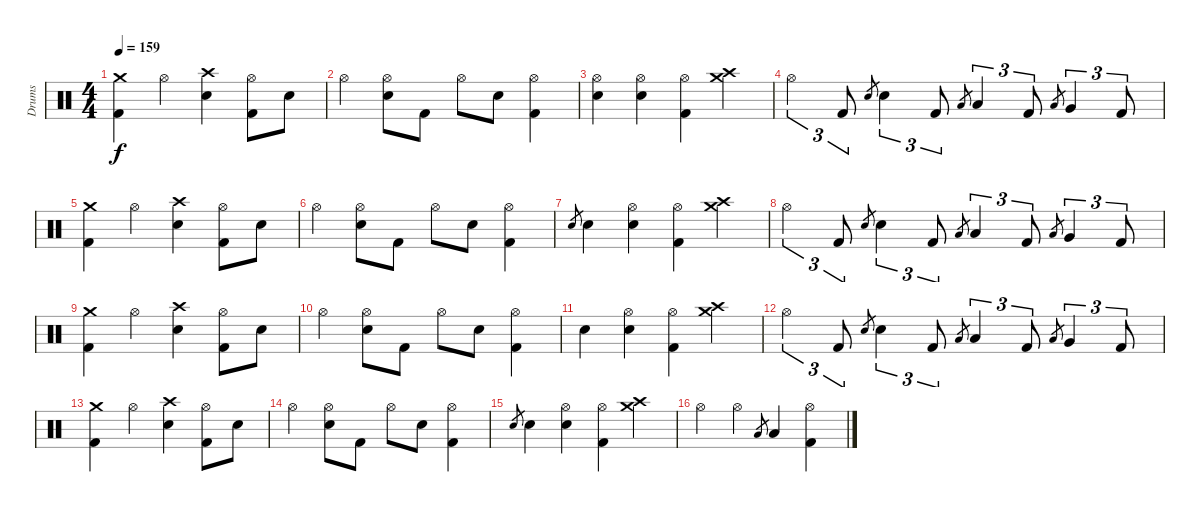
\track ("Drums" "Drums") {instrument percussion}
\staff {score}
\articulation defaults
\ts (4 4)
\tempo 159
\clef neutral
\ks c
("Crash medium (hit)" "Kick (hit) 2").4{dy f} "Hi-Hat (open)".4 ("Crash high (hit)" "Snare (hit) 2").4 ("Hi-Hat (open)" "Kick (hit) 2").8 "Snare (hit) 2".8 |
"Hi-Hat (open)".4 ("Hi-Hat (open)" "Snare (hit) 2").8 "Kick (hit) 2".8 "Hi-Hat (open)".8 "Snare (hit) 2".8 ("Hi-Hat (open)" "Kick (hit) 2").4 |
("Hi-Hat (open)" "Snare (hit) 2").4 ("Hi-Hat (open)" "Snare (hit) 2").4 ("Hi-Hat (open)" "Kick (hit) 2").4 ("Crash high (hit)" "Crash medium (hit)").4 |
"Hi-Hat (open)".4{tu (3 2)} "Kick (hit) 2".8{tu (3 2)} "Snare (hit) 2".8{gr} "Snare (hit) 2".4{tu (3 2)} "Kick (hit) 2".8{tu (3 2)} "Low Tom (hit)".8{gr} "Low Tom (hit)".4{tu (3 2)} "Kick (hit) 2".8{tu (3 2)} "Low Tom (hit)".8{gr} "Very Low Tom (hit)".4{tu (3 2)} "Kick (hit) 2".8{tu (3 2)} |
("Crash medium (hit)" "Kick (hit) 2").4 "Hi-Hat (open)".4 ("Crash high (hit)" "Snare (hit) 2").4 ("Hi-Hat (open)" "Kick (hit) 2").8 "Snare (hit) 2".8 |
"Hi-Hat (open)".4 ("Hi-Hat (open)" "Snare (hit) 2").8 "Kick (hit) 2".8 "Hi-Hat (open)".8 "Snare (hit) 2".8 ("Hi-Hat (open)" "Kick (hit) 2").4 |
"Snare (hit) 2".8{gr} "Snare (hit) 2".4 ("Hi-Hat (open)" "Snare (hit) 2").4 ("Hi-Hat (open)" "Kick (hit) 2").4 ("Crash high (hit)" "Crash medium (hit)").4 |
"Hi-Hat (open)".4{tu (3 2)} "Kick (hit) 2".8{tu (3 2)} "Snare (hit) 2".8{gr} "Snare (hit) 2".4{tu (3 2)} "Kick (hit) 2".8{tu (3 2)} "Low Tom (hit)".8{gr} "Low Tom (hit)".4{tu (3 2)} "Kick (hit) 2".8{tu (3 2)} "Low Tom (hit)".8{gr} "Very Low Tom (hit)".4{tu (3 2)} "Kick (hit) 2".8{tu (3 2)} |
("Crash medium (hit)" "Kick (hit) 2").4 "Hi-Hat (open)".4 ("Crash high (hit)" "Snare (hit) 2").4 ("Hi-Hat (open)" "Kick (hit) 2").8 "Snare (hit) 2".8 |
"Hi-Hat (open)".4 ("Hi-Hat (open)" "Snare (hit) 2").8 "Kick (hit) 2".8 "Hi-Hat (open)".8 "Snare (hit) 2".8 ("Hi-Hat (open)" "Kick (hit) 2").4 |
"Snare (hit) 2".4 ("Hi-Hat (open)" "Snare (hit) 2").4 ("Hi-Hat (open)" "Kick (hit) 2").4 ("Crash high (hit)" "Crash medium (hit)").4 |
"Hi-Hat (open)".4{tu (3 2)} "Kick (hit) 2".8{tu (3 2)} "Snare (hit) 2".8{gr} "Snare (hit) 2".4{tu (3 2)} "Kick (hit) 2".8{tu (3 2)} "Low Tom (hit)".8{gr} "Low Tom (hit)".4{tu (3 2)} "Kick (hit) 2".8{tu (3 2)} "Low Tom (hit)".8{gr} "Very Low Tom (hit)".4{tu (3 2)} "Kick (hit) 2".8{tu (3 2)} |
("Crash medium (hit)" "Kick (hit) 2").4 "Hi-Hat (open)".4 ("Crash high (hit)" "Snare (hit) 2").4 ("Hi-Hat (open)" "Kick (hit) 2").8 "Snare (hit) 2".8 |
"Hi-Hat (open)".4 ("Hi-Hat (open)" "Snare (hit) 2").8 "Kick (hit) 2".8 "Hi-Hat (open)".8 "Snare (hit) 2".8 ("Hi-Hat (open)" "Kick (hit) 2").4 |
"Snare (hit) 2".8{gr} "Snare (hit) 2".4 ("Hi-Hat (open)" "Snare (hit) 2").4 ("Hi-Hat (open)" "Kick (hit) 2").4 ("Crash high (hit)" "Crash medium (hit)").4 |
"Hi-Hat (open)".4 "Hi-Hat (open)".4 "Low Tom (hit)".8{gr} "Low Tom (hit)".4 ("Hi-Hat (open)" "Kick (hit) 2").4
